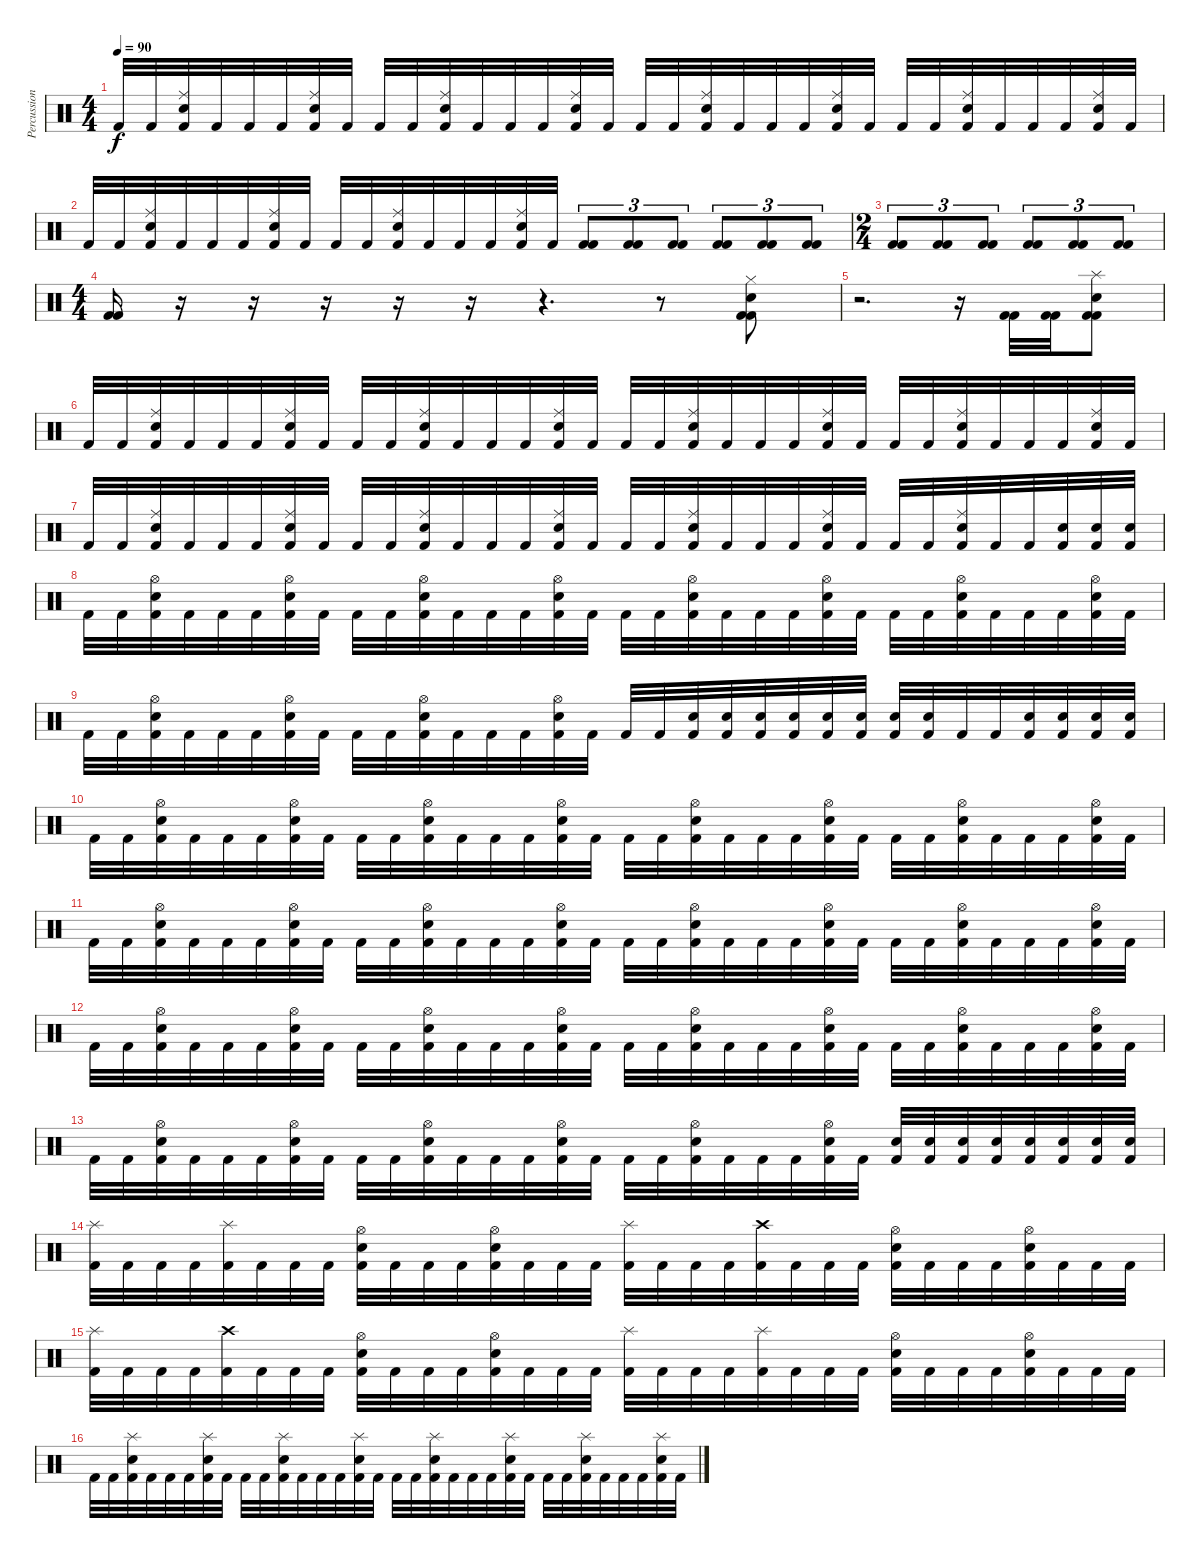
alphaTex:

\track ("Percussions" "Percussion") {instrument percussion}
\staff {score}
\articulation defaults
\ts (4 4)
\tempo 90
\clef neutral
\ks c "Kick (hit) 2".32{dy f} "Kick (hit) 2".32
("Ride (middle)" "Electric Snare (hit)" "Kick (hit) 2").32 "Kick (hit) 2".32 "Kick (hit) 2".32 "Kick (hit) 2".32 ("Ride (middle)" "Electric Snare (hit)" "Kick (hit) 2").32 "Kick (hit) 2".32 "Kick (hit) 2".32 "Kick (hit) 2".32 ("Ride (middle)" "Electric Snare (hit)" "Kick (hit) 2").32 "Kick (hit) 2".32 "Kick (hit) 2".32 "Kick (hit) 2".32 ("Ride (middle)" "Electric Snare (hit)" "Kick (hit) 2").32 "Kick (hit) 2".32 "Kick (hit) 2".32 "Kick (hit) 2".32 ("Ride (middle)" "Electric Snare (hit)" "Kick (hit) 2").32 "Kick (hit) 2".32 "Kick (hit) 2".32 "Kick (hit) 2".32 ("Ride (middle)" "Electric Snare (hit)" "Kick (hit) 2").32 "Kick (hit) 2".32 "Kick (hit) 2".32 "Kick (hit) 2".32 ("Ride (middle)" "Electric Snare (hit)" "Kick (hit) 2").32 "Kick (hit) 2".32 "Kick (hit) 2".32 "Kick (hit) 2".32 ("Ride (middle)" "Electric Snare (hit)" "Kick (hit) 2").32 "Kick (hit) 2".32 |
"Kick (hit) 2".32 "Kick (hit) 2".32 ("Ride (middle)" "Electric Snare (hit)" "Kick (hit) 2").32 "Kick (hit) 2".32 "Kick (hit) 2".32 "Kick (hit) 2".32 ("Ride (middle)" "Electric Snare (hit)" "Kick (hit) 2").32 "Kick (hit) 2".32 "Kick (hit) 2".32 "Kick (hit) 2".32 ("Ride (middle)" "Electric Snare (hit)" "Kick (hit) 2").32 "Kick (hit) 2".32 "Kick (hit) 2".32 "Kick (hit) 2".32 ("Ride (middle)" "Electric Snare (hit)" "Kick (hit) 2").32 "Kick (hit) 2".32 ("Kick (hit) 2" "Kick (hit) 2").8{tu (3 2)} ("Kick (hit) 2" "Kick (hit) 2").8{tu (3 2)} ("Kick (hit) 2" "Kick (hit) 2").8{tu (3 2)} ("Kick (hit) 2" "Kick (hit) 2").8{tu (3 2)} ("Kick (hit) 2" "Kick (hit) 2").8{tu (3 2)} ("Kick (hit) 2" "Kick (hit) 2").8{tu (3 2)} |
\ts (2 4)
("Kick (hit) 2" "Kick (hit) 2").8{tu (3 2)} ("Kick (hit) 2" "Kick (hit) 2").8{tu (3 2)} ("Kick (hit) 2" "Kick (hit) 2").8{tu (3 2)} ("Kick (hit) 2" "Kick (hit) 2").8{tu (3 2)} ("Kick (hit) 2" "Kick (hit) 2").8{tu (3 2)} ("Kick (hit) 2" "Kick (hit) 2").8{tu (3 2)} |
\ts (4 4)
("Kick (hit) 2" "Kick (hit) 2").16 r.16 r.16 r.16 r.16 r.16 r.4{d} r.8 ("Hi-Hat (closed)" "Electric Snare (hit)" "Kick (hit) 2" "Kick (hit) 2").8 |
r.2{d} r.16 ("Kick (hit) 2" "Kick (hit) 2").32 ("Kick (hit) 2" "Kick (hit) 2").32 ("Splash (hit)" "Electric Snare (hit)" "Kick (hit) 2" "Kick (hit) 2").8 |
"Kick (hit) 2".32 "Kick (hit) 2".32 ("Ride (middle)" "Electric Snare (hit)" "Kick (hit) 2").32 "Kick (hit) 2".32 "Kick (hit) 2".32 "Kick (hit) 2".32 ("Ride (middle)" "Electric Snare (hit)" "Kick (hit) 2").32 "Kick (hit) 2".32 "Kick (hit) 2".32 "Kick (hit) 2".32 ("Ride (middle)" "Electric Snare (hit)" "Kick (hit) 2").32 "Kick (hit) 2".32 "Kick (hit) 2".32 "Kick (hit) 2".32 ("Ride (middle)" "Electric Snare (hit)" "Kick (hit) 2").32 "Kick (hit) 2".32 "Kick (hit) 2".32 "Kick (hit) 2".32 ("Ride (middle)" "Electric Snare (hit)" "Kick (hit) 2").32 "Kick (hit) 2".32 "Kick (hit) 2".32 "Kick (hit) 2".32 ("Ride (middle)" "Electric Snare (hit)" "Kick (hit) 2").32 "Kick (hit) 2".32 "Kick (hit) 2".32 "Kick (hit) 2".32 ("Ride (middle)" "Electric Snare (hit)" "Kick (hit) 2").32 "Kick (hit) 2".32 "Kick (hit) 2".32 "Kick (hit) 2".32 ("Ride (middle)" "Electric Snare (hit)" "Kick (hit) 2").32 "Kick (hit) 2".32 |
"Kick (hit) 2".32 "Kick (hit) 2".32 ("Ride (middle)" "Electric Snare (hit)" "Kick (hit) 2").32 "Kick (hit) 2".32 "Kick (hit) 2".32 "Kick (hit) 2".32 ("Ride (middle)" "Electric Snare (hit)" "Kick (hit) 2").32 "Kick (hit) 2".32 "Kick (hit) 2".32 "Kick (hit) 2".32 ("Ride (middle)" "Electric Snare (hit)" "Kick (hit) 2").32 "Kick (hit) 2".32 "Kick (hit) 2".32 "Kick (hit) 2".32 ("Ride (middle)" "Electric Snare (hit)" "Kick (hit) 2").32 "Kick (hit) 2".32 "Kick (hit) 2".32 "Kick (hit) 2".32 ("Ride (middle)" "Electric Snare (hit)" "Kick (hit) 2").32 "Kick (hit) 2".32 "Kick (hit) 2".32 "Kick (hit) 2".32 ("Ride (middle)" "Electric Snare (hit)" "Kick (hit) 2").32 "Kick (hit) 2".32 "Kick (hit) 2".32 "Kick (hit) 2".32 ("Ride (middle)" "Electric Snare (hit)" "Kick (hit) 2").32 "Kick (hit) 2".32 "Kick (hit) 2".32 ("Electric Snare (hit)" "Kick (hit) 2").32 ("Electric Snare (hit)" "Kick (hit) 2").32 ("Electric Snare (hit)" "Kick (hit) 2").32 |
"Kick (hit) 2".32 "Kick (hit) 2".32 ("Hi-Hat (open)" "Electric Snare (hit)" "Kick (hit) 2").32 "Kick (hit) 2".32 "Kick (hit) 2".32 "Kick (hit) 2".32 ("Hi-Hat (open)" "Electric Snare (hit)" "Kick (hit) 2").32 "Kick (hit) 2".32 "Kick (hit) 2".32 "Kick (hit) 2".32 ("Hi-Hat (open)" "Electric Snare (hit)" "Kick (hit) 2").32 "Kick (hit) 2".32 "Kick (hit) 2".32 "Kick (hit) 2".32 ("Hi-Hat (open)" "Electric Snare (hit)" "Kick (hit) 2").32 "Kick (hit) 2".32 "Kick (hit) 2".32 "Kick (hit) 2".32 ("Hi-Hat (open)" "Electric Snare (hit)" "Kick (hit) 2").32 "Kick (hit) 2".32 "Kick (hit) 2".32 "Kick (hit) 2".32 ("Hi-Hat (open)" "Electric Snare (hit)" "Kick (hit) 2").32 "Kick (hit) 2".32 "Kick (hit) 2".32 "Kick (hit) 2".32 ("Hi-Hat (open)" "Electric Snare (hit)" "Kick (hit) 2").32 "Kick (hit) 2".32 "Kick (hit) 2".32 "Kick (hit) 2".32 ("Hi-Hat (open)" "Electric Snare (hit)" "Kick (hit) 2").32 "Kick (hit) 2".32 |
"Kick (hit) 2".32 "Kick (hit) 2".32 ("Hi-Hat (open)" "Electric Snare (hit)" "Kick (hit) 2").32 "Kick (hit) 2".32 "Kick (hit) 2".32 "Kick (hit) 2".32 ("Hi-Hat (open)" "Electric Snare (hit)" "Kick (hit) 2").32 "Kick (hit) 2".32 "Kick (hit) 2".32 "Kick (hit) 2".32 ("Hi-Hat (open)" "Electric Snare (hit)" "Kick (hit) 2").32 "Kick (hit) 2".32 "Kick (hit) 2".32 "Kick (hit) 2".32 ("Hi-Hat (open)" "Electric Snare (hit)" "Kick (hit) 2").32 "Kick (hit) 2".32 "Kick (hit) 2".32 "Kick (hit) 2".32 ("Electric Snare (hit)" "Kick (hit) 2").32 ("Electric Snare (hit)" "Kick (hit) 2").32 ("Snare (hit) 2" "Kick (hit) 2").32 ("Snare (hit) 2" "Kick (hit) 2").32 ("Snare (hit) 2" "Kick (hit) 2").32 ("Electric Snare (hit)" "Kick (hit) 2").32 ("Electric Snare (hit)" "Kick (hit) 2").32 ("Electric Snare (hit)" "Kick (hit) 2").32 "Kick (hit) 2".32 "Kick (hit) 2".32 ("Electric Snare (hit)" "Kick (hit) 2").32 ("Electric Snare (hit)" "Kick (hit) 2").32 ("Electric Snare (hit)" "Kick (hit) 2").32 ("Electric Snare (hit)" "Kick (hit) 2").32 |
"Kick (hit) 2".32 "Kick (hit) 2".32 ("Hi-Hat (open)" "Electric Snare (hit)" "Kick (hit) 2").32 "Kick (hit) 2".32 "Kick (hit) 2".32 "Kick (hit) 2".32 ("Hi-Hat (open)" "Electric Snare (hit)" "Kick (hit) 2").32 "Kick (hit) 2".32 "Kick (hit) 2".32 "Kick (hit) 2".32 ("Hi-Hat (open)" "Electric Snare (hit)" "Kick (hit) 2").32 "Kick (hit) 2".32 "Kick (hit) 2".32 "Kick (hit) 2".32 ("Hi-Hat (open)" "Electric Snare (hit)" "Kick (hit) 2").32 "Kick (hit) 2".32 "Kick (hit) 2".32 "Kick (hit) 2".32 ("Hi-Hat (open)" "Electric Snare (hit)" "Kick (hit) 2").32 "Kick (hit) 2".32 "Kick (hit) 2".32 "Kick (hit) 2".32 ("Hi-Hat (open)" "Electric Snare (hit)" "Kick (hit) 2").32 "Kick (hit) 2".32 "Kick (hit) 2".32 "Kick (hit) 2".32 ("Hi-Hat (open)" "Electric Snare (hit)" "Kick (hit) 2").32 "Kick (hit) 2".32 "Kick (hit) 2".32 "Kick (hit) 2".32 ("Hi-Hat (open)" "Electric Snare (hit)" "Kick (hit) 2").32 "Kick (hit) 2".32 |
"Kick (hit) 2".32 "Kick (hit) 2".32 ("Hi-Hat (open)" "Electric Snare (hit)" "Kick (hit) 2").32 "Kick (hit) 2".32 "Kick (hit) 2".32 "Kick (hit) 2".32 ("Hi-Hat (open)" "Electric Snare (hit)" "Kick (hit) 2").32 "Kick (hit) 2".32 "Kick (hit) 2".32 "Kick (hit) 2".32 ("Hi-Hat (open)" "Electric Snare (hit)" "Kick (hit) 2").32 "Kick (hit) 2".32 "Kick (hit) 2".32 "Kick (hit) 2".32 ("Hi-Hat (open)" "Electric Snare (hit)" "Kick (hit) 2").32 "Kick (hit) 2".32 "Kick (hit) 2".32 "Kick (hit) 2".32 ("Hi-Hat (open)" "Electric Snare (hit)" "Kick (hit) 2").32 "Kick (hit) 2".32 "Kick (hit) 2".32 "Kick (hit) 2".32 ("Hi-Hat (open)" "Electric Snare (hit)" "Kick (hit) 2").32 "Kick (hit) 2".32 "Kick (hit) 2".32 "Kick (hit) 2".32 ("Hi-Hat (open)" "Electric Snare (hit)" "Kick (hit) 2").32 "Kick (hit) 2".32 "Kick (hit) 2".32 "Kick (hit) 2".32 ("Hi-Hat (open)" "Electric Snare (hit)" "Kick (hit) 2").32 "Kick (hit) 2".32 |
"Kick (hit) 2".32 "Kick (hit) 2".32 ("Hi-Hat (open)" "Electric Snare (hit)" "Kick (hit) 2").32 "Kick (hit) 2".32 "Kick (hit) 2".32 "Kick (hit) 2".32 ("Hi-Hat (open)" "Electric Snare (hit)" "Kick (hit) 2").32 "Kick (hit) 2".32 "Kick (hit) 2".32 "Kick (hit) 2".32 ("Hi-Hat (open)" "Electric Snare (hit)" "Kick (hit) 2").32 "Kick (hit) 2".32 "Kick (hit) 2".32 "Kick (hit) 2".32 ("Hi-Hat (open)" "Electric Snare (hit)" "Kick (hit) 2").32 "Kick (hit) 2".32 "Kick (hit) 2".32 "Kick (hit) 2".32 ("Hi-Hat (open)" "Electric Snare (hit)" "Kick (hit) 2").32 "Kick (hit) 2".32 "Kick (hit) 2".32 "Kick (hit) 2".32 ("Hi-Hat (open)" "Electric Snare (hit)" "Kick (hit) 2").32 "Kick (hit) 2".32 "Kick (hit) 2".32 "Kick (hit) 2".32 ("Hi-Hat (open)" "Electric Snare (hit)" "Kick (hit) 2").32 "Kick (hit) 2".32 "Kick (hit) 2".32 "Kick (hit) 2".32 ("Hi-Hat (open)" "Electric Snare (hit)" "Kick (hit) 2").32 "Kick (hit) 2".32 |
"Kick (hit) 2".32 "Kick (hit) 2".32 ("Hi-Hat (open)" "Electric Snare (hit)" "Kick (hit) 2").32 "Kick (hit) 2".32 "Kick (hit) 2".32 "Kick (hit) 2".32 ("Hi-Hat (open)" "Electric Snare (hit)" "Kick (hit) 2").32 "Kick (hit) 2".32 "Kick (hit) 2".32 "Kick (hit) 2".32 ("Hi-Hat (open)" "Electric Snare (hit)" "Kick (hit) 2").32 "Kick (hit) 2".32 "Kick (hit) 2".32 "Kick (hit) 2".32 ("Hi-Hat (open)" "Electric Snare (hit)" "Kick (hit) 2").32 "Kick (hit) 2".32 "Kick (hit) 2".32 "Kick (hit) 2".32 ("Hi-Hat (open)" "Electric Snare (hit)" "Kick (hit) 2").32 "Kick (hit) 2".32 "Kick (hit) 2".32 "Kick (hit) 2".32 ("Hi-Hat (open)" "Electric Snare (hit)" "Kick (hit) 2").32 "Kick (hit) 2".32 ("Snare (hit) 2" "Kick (hit) 2").32 ("Snare (hit) 2" "Kick (hit) 2").32 ("Snare (hit) 2" "Kick (hit) 2").32 ("Snare (hit) 2" "Kick (hit) 2").32 ("Electric Snare (hit)" "Kick (hit) 2").32 ("Electric Snare (hit)" "Kick (hit) 2").32 ("Electric Snare (hit)" "Kick (hit) 2").32 ("Electric Snare (hit)" "Kick (hit) 2").32 |
("Splash (hit)" "Kick (hit) 2").32 "Kick (hit) 2".32 "Kick (hit) 2".32 "Kick (hit) 2".32 ("Splash (hit)" "Kick (hit) 2").32 "Kick (hit) 2".32 "Kick (hit) 2".32 "Kick (hit) 2".32 ("Hi-Hat (open)" "Electric Snare (hit)" "Kick (hit) 2").32 "Kick (hit) 2".32 "Kick (hit) 2".32 "Kick (hit) 2".32 ("Hi-Hat (open)" "Electric Snare (hit)" "Kick (hit) 2").32 "Kick (hit) 2".32 "Kick (hit) 2".32 "Kick (hit) 2".32 ("Splash (hit)" "Kick (hit) 2").32 "Kick (hit) 2".32 "Kick (hit) 2".32 "Kick (hit) 2".32 ("Crash high (hit)" "Kick (hit) 2").32 "Kick (hit) 2".32 "Kick (hit) 2".32 "Kick (hit) 2".32 ("Hi-Hat (open)" "Electric Snare (hit)" "Kick (hit) 2").32 "Kick (hit) 2".32 "Kick (hit) 2".32 "Kick (hit) 2".32 ("Hi-Hat (open)" "Electric Snare (hit)" "Kick (hit) 2").32 "Kick (hit) 2".32 "Kick (hit) 2".32 "Kick (hit) 2".32 |
("Splash (hit)" "Kick (hit) 2").32 "Kick (hit) 2".32 "Kick (hit) 2".32 "Kick (hit) 2".32 ("Crash high (hit)" "Kick (hit) 2").32 "Kick (hit) 2".32 "Kick (hit) 2".32 "Kick (hit) 2".32 ("Hi-Hat (open)" "Electric Snare (hit)" "Kick (hit) 2").32 "Kick (hit) 2".32 "Kick (hit) 2".32 "Kick (hit) 2".32 ("Hi-Hat (open)" "Electric Snare (hit)" "Kick (hit) 2").32 "Kick (hit) 2".32 "Kick (hit) 2".32 "Kick (hit) 2".32 ("Splash (hit)" "Kick (hit) 2").32 "Kick (hit) 2".32 "Kick (hit) 2".32 "Kick (hit) 2".32 ("Splash (hit)" "Kick (hit) 2").32 "Kick (hit) 2".32 "Kick (hit) 2".32 "Kick (hit) 2".32 ("Hi-Hat (open)" "Electric Snare (hit)" "Kick (hit) 2").32 "Kick (hit) 2".32 "Kick (hit) 2".32 "Kick (hit) 2".32 ("Hi-Hat (open)" "Electric Snare (hit)" "Kick (hit) 2").32 "Kick (hit) 2".32 "Kick (hit) 2".32 "Kick (hit) 2".32 |
"Kick (hit) 2".32 "Kick (hit) 2".32 ("Splash (hit)" "Electric Snare (hit)" "Kick (hit) 2").32 "Kick (hit) 2".32 "Kick (hit) 2".32 "Kick (hit) 2".32 ("Splash (hit)" "Electric Snare (hit)" "Kick (hit) 2").32 "Kick (hit) 2".32 "Kick (hit) 2".32 "Kick (hit) 2".32 ("Splash (hit)" "Electric Snare (hit)" "Kick (hit) 2").32 "Kick (hit) 2".32 "Kick (hit) 2".32 "Kick (hit) 2".32 ("Splash (hit)" "Electric Snare (hit)" "Kick (hit) 2").32 "Kick (hit) 2".32 "Kick (hit) 2".32 "Kick (hit) 2".32 ("Splash (hit)" "Electric Snare (hit)" "Kick (hit) 2").32 "Kick (hit) 2".32 "Kick (hit) 2".32 "Kick (hit) 2".32 ("Splash (hit)" "Electric Snare (hit)" "Kick (hit) 2").32 "Kick (hit) 2".32 "Kick (hit) 2".32 "Kick (hit) 2".32 ("Splash (hit)" "Electric Snare (hit)" "Kick (hit) 2").32 "Kick (hit) 2".32 "Kick (hit) 2".32 "Kick (hit) 2".32 ("Splash (hit)" "Electric Snare (hit)" "Kick (hit) 2").32 "Kick (hit) 2".32
